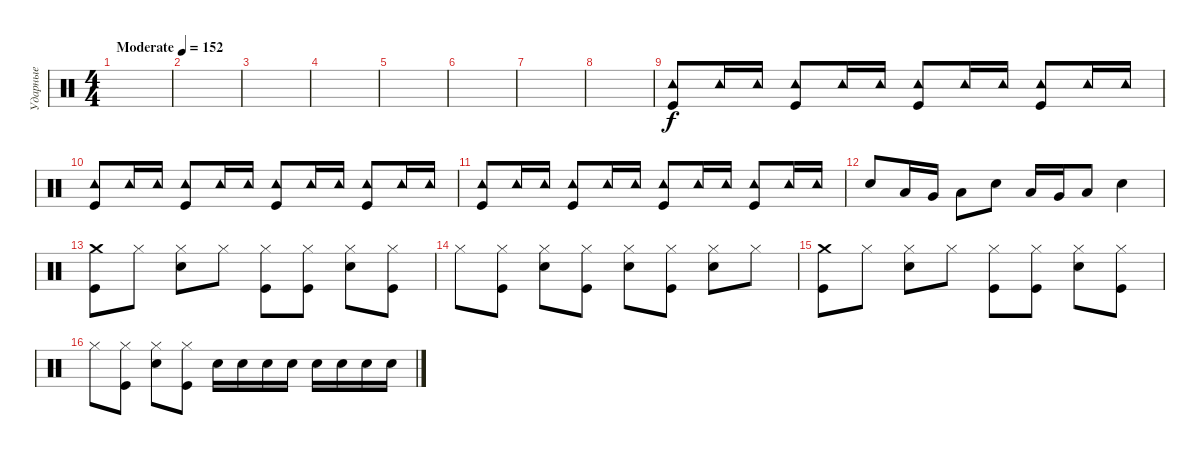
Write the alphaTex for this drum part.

\track ("Ударные" "Ударные") {instrument percussion}
\staff {score}
\articulation defaults
\ts (4 4)
\tempo (152 "Moderate")
\clef neutral
\ks c
|
|
|
|
|
|
|
|
("Tambourine (hit)" "Kick (hit)").8 "Tambourine (hit)".16 "Tambourine (hit)".16 ("Tambourine (hit)" "Kick (hit)").8 "Tambourine (hit)".16 "Tambourine (hit)".16 ("Tambourine (hit)" "Kick (hit)").8 "Tambourine (hit)".16 "Tambourine (hit)".16 ("Tambourine (hit)" "Kick (hit)").8 "Tambourine (hit)".16 "Tambourine (hit)".16 |
("Tambourine (hit)" "Kick (hit)").8 "Tambourine (hit)".16 "Tambourine (hit)".16 ("Tambourine (hit)" "Kick (hit)").8 "Tambourine (hit)".16 "Tambourine (hit)".16 ("Tambourine (hit)" "Kick (hit)").8 "Tambourine (hit)".16 "Tambourine (hit)".16 ("Tambourine (hit)" "Kick (hit)").8 "Tambourine (hit)".16 "Tambourine (hit)".16 |
("Tambourine (hit)" "Kick (hit)").8 "Tambourine (hit)".16 "Tambourine (hit)".16 ("Tambourine (hit)" "Kick (hit)").8 "Tambourine (hit)".16 "Tambourine (hit)".16 ("Tambourine (hit)" "Kick (hit)").8 "Tambourine (hit)".16 "Tambourine (hit)".16 ("Tambourine (hit)" "Kick (hit)").8 "Tambourine (hit)".16 "Tambourine (hit)".16 |
"Electric Snare (hit)".8 "Low Tom (hit)".16 "Very Low Tom (hit)".16 "Low Tom (hit)".8 "Electric Snare (hit)".8 "Low Tom (hit)".16 "Very Low Tom (hit)".16 "Low Tom (hit)".8 "Electric Snare (hit)".4 |
("Crash medium (hit)" "Kick (hit)").8 "Hi-Hat (closed)".8 ("Hi-Hat (closed)" "Electric Snare (hit)").8 "Hi-Hat (closed)".8 ("Hi-Hat (closed)" "Kick (hit)").8 ("Hi-Hat (closed)" "Kick (hit)").8 ("Hi-Hat (closed)" "Electric Snare (hit)").8 ("Hi-Hat (closed)" "Kick (hit)").8 |
"Hi-Hat (closed)".8 ("Hi-Hat (closed)" "Kick (hit)").8 ("Hi-Hat (closed)" "Electric Snare (hit)").8 ("Hi-Hat (closed)" "Kick (hit)").8 ("Hi-Hat (closed)" "Electric Snare (hit)").8 ("Hi-Hat (closed)" "Kick (hit)").8 ("Hi-Hat (closed)" "Electric Snare (hit)").8 "Hi-Hat (closed)".8 |
("Crash medium (hit)" "Kick (hit)").8 "Hi-Hat (closed)".8 ("Hi-Hat (closed)" "Electric Snare (hit)").8 "Hi-Hat (closed)".8 ("Hi-Hat (closed)" "Kick (hit)").8 ("Hi-Hat (closed)" "Kick (hit)").8 ("Hi-Hat (closed)" "Electric Snare (hit)").8 ("Hi-Hat (closed)" "Kick (hit)").8 |
"Hi-Hat (closed)".8 ("Hi-Hat (closed)" "Kick (hit)").8 ("Hi-Hat (closed)" "Electric Snare (hit)").8 ("Hi-Hat (closed)" "Kick (hit)").8 "Electric Snare (hit)".16 "Electric Snare (hit)".16 "Electric Snare (hit)".16 "Electric Snare (hit)".16 "Electric Snare (hit)".16 "Electric Snare (hit)".16 "Electric Snare (hit)".16 "Electric Snare (hit)".16
